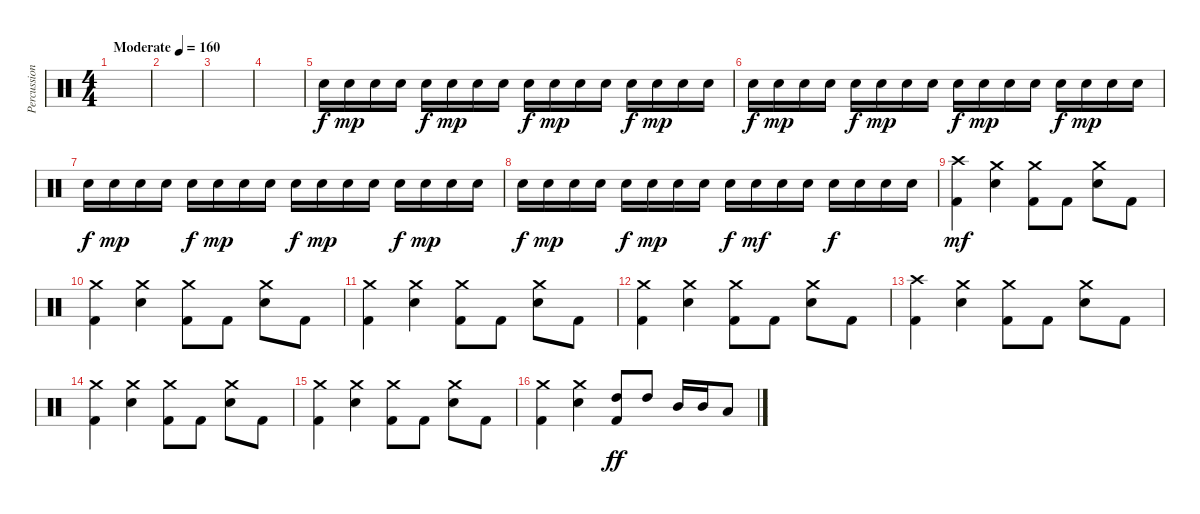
\track ("Percussion" "Percussion") {instrument percussion}
\staff {score}
\articulation defaults
\ts (4 4)
\tempo (160 "Moderate")
\clef neutral
\ks c
|
|
|
|
"Electric Snare (hit)".16 "Electric Snare (hit)".16{dy mp} "Electric Snare (hit)".16 "Electric Snare (hit)".16 "Electric Snare (hit)".16{dy f} "Electric Snare (hit)".16{dy mp} "Electric Snare (hit)".16 "Electric Snare (hit)".16 "Electric Snare (hit)".16{dy f} "Electric Snare (hit)".16{dy mp} "Electric Snare (hit)".16 "Electric Snare (hit)".16 "Electric Snare (hit)".16{dy f} "Electric Snare (hit)".16{dy mp} "Electric Snare (hit)".16 "Electric Snare (hit)".16 |
"Electric Snare (hit)".16{dy f} "Electric Snare (hit)".16{dy mp} "Electric Snare (hit)".16 "Electric Snare (hit)".16 "Electric Snare (hit)".16{dy f} "Electric Snare (hit)".16{dy mp} "Electric Snare (hit)".16 "Electric Snare (hit)".16 "Electric Snare (hit)".16{dy f} "Electric Snare (hit)".16{dy mp} "Electric Snare (hit)".16 "Electric Snare (hit)".16 "Electric Snare (hit)".16{dy f} "Electric Snare (hit)".16{dy mp} "Electric Snare (hit)".16 "Electric Snare (hit)".16 |
"Electric Snare (hit)".16{dy f} "Electric Snare (hit)".16{dy mp} "Electric Snare (hit)".16 "Electric Snare (hit)".16 "Electric Snare (hit)".16{dy f} "Electric Snare (hit)".16{dy mp} "Electric Snare (hit)".16 "Electric Snare (hit)".16 "Electric Snare (hit)".16{dy f} "Electric Snare (hit)".16{dy mp} "Electric Snare (hit)".16 "Electric Snare (hit)".16 "Electric Snare (hit)".16{dy f} "Electric Snare (hit)".16{dy mp} "Electric Snare (hit)".16 "Electric Snare (hit)".16 |
"Electric Snare (hit)".16{dy f} "Electric Snare (hit)".16{dy mp} "Electric Snare (hit)".16 "Electric Snare (hit)".16 "Electric Snare (hit)".16{dy f} "Electric Snare (hit)".16{dy mp} "Electric Snare (hit)".16 "Electric Snare (hit)".16 "Electric Snare (hit)".16{dy f} "Electric Snare (hit)".16{dy mf} "Electric Snare (hit)".16 "Electric Snare (hit)".16 "Electric Snare (hit)".16{dy f} "Electric Snare (hit)".16 "Electric Snare (hit)".16 "Electric Snare (hit)".16 |
("Crash high (hit)" "Kick (hit) 2").4{dy mf} ("Crash medium (hit)" "Electric Snare (hit)").4 ("Crash medium (hit)" "Kick (hit) 2").8 "Kick (hit) 2".8 ("Crash medium (hit)" "Electric Snare (hit)").8 "Kick (hit) 2".8 |
("Crash medium (hit)" "Kick (hit) 2").4 ("Crash medium (hit)" "Electric Snare (hit)").4 ("Crash medium (hit)" "Kick (hit) 2").8 "Kick (hit) 2".8 ("Crash medium (hit)" "Electric Snare (hit)").8 "Kick (hit) 2".8 |
("Crash medium (hit)" "Kick (hit) 2").4 ("Crash medium (hit)" "Electric Snare (hit)").4 ("Crash medium (hit)" "Kick (hit) 2").8 "Kick (hit) 2".8 ("Crash medium (hit)" "Electric Snare (hit)").8 "Kick (hit) 2".8 |
("Crash medium (hit)" "Kick (hit) 2").4 ("Crash medium (hit)" "Electric Snare (hit)").4 ("Crash medium (hit)" "Kick (hit) 2").8 "Kick (hit) 2".8 ("Crash medium (hit)" "Electric Snare (hit)").8 "Kick (hit) 2".8 |
("Crash high (hit)" "Kick (hit) 2").4 ("Crash medium (hit)" "Electric Snare (hit)").4 ("Crash medium (hit)" "Kick (hit) 2").8 "Kick (hit) 2".8 ("Crash medium (hit)" "Electric Snare (hit)").8 "Kick (hit) 2".8 |
("Crash medium (hit)" "Kick (hit) 2").4 ("Crash medium (hit)" "Electric Snare (hit)").4 ("Crash medium (hit)" "Kick (hit) 2").8 "Kick (hit) 2".8 ("Crash medium (hit)" "Electric Snare (hit)").8 "Kick (hit) 2".8 |
("Crash medium (hit)" "Kick (hit) 2").4 ("Crash medium (hit)" "Electric Snare (hit)").4 ("Crash medium (hit)" "Kick (hit) 2").8 "Kick (hit) 2".8 ("Crash medium (hit)" "Electric Snare (hit)").8 "Kick (hit) 2".8 |
("Crash medium (hit)" "Kick (hit) 2").4 ("Crash medium (hit)" "Electric Snare (hit)").4 ("High Tom (hit)" "Kick (hit) 2").8{dy ff} "High Tom (hit)".8 "Mid Tom (hit)".16 "Mid Tom (hit)".16 "Low Tom (hit)".8
